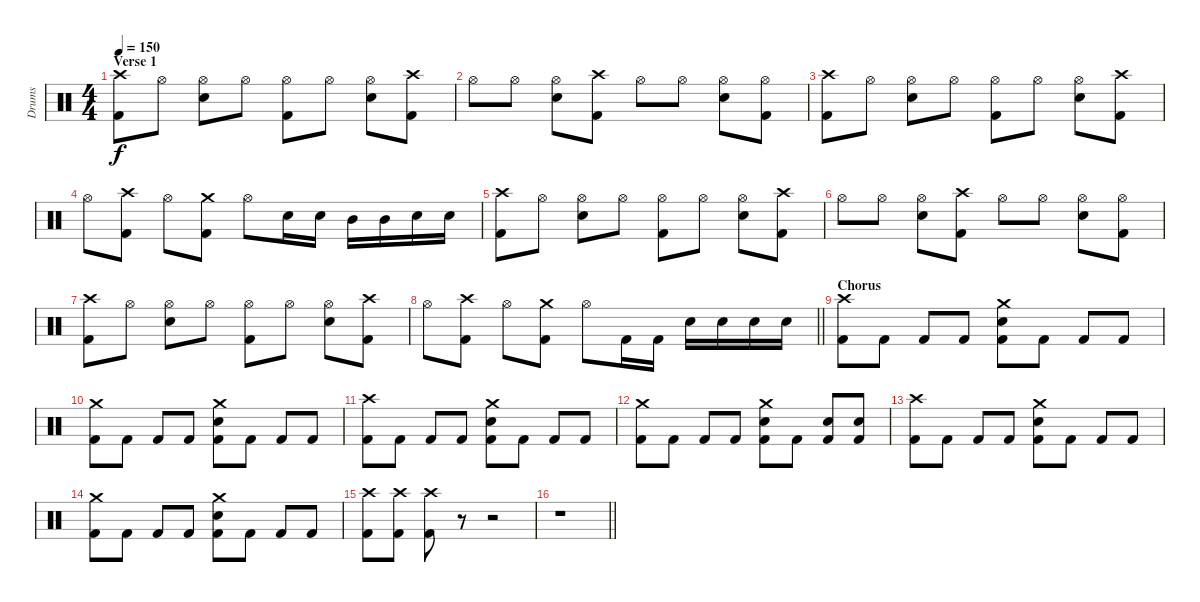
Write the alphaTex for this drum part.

\track ("Drums" "Drums") {instrument percussion}
\staff {score}
\articulation defaults
\ts (4 4)
\section ("" "Verse 1")
\tempo 150
\clef neutral
\ks c
("Crash high (hit)" "Kick (hit) 2").8{dy f} "Hi-Hat (open)".8 ("Hi-Hat (open)" "Electric Snare (hit)").8 "Hi-Hat (open)".8 ("Hi-Hat (open)" "Kick (hit) 2").8 "Hi-Hat (open)".8 ("Hi-Hat (open)" "Electric Snare (hit)").8 ("Crash high (hit)" "Kick (hit) 2").8 |
"Hi-Hat (open)".8 "Hi-Hat (open)".8 ("Hi-Hat (open)" "Electric Snare (hit)").8 ("Crash high (hit)" "Kick (hit) 2").8 "Hi-Hat (open)".8 "Hi-Hat (open)".8 ("Hi-Hat (open)" "Electric Snare (hit)").8 ("Hi-Hat (open)" "Kick (hit) 2").8 |
("Crash high (hit)" "Kick (hit) 2").8 "Hi-Hat (open)".8 ("Hi-Hat (open)" "Electric Snare (hit)").8 "Hi-Hat (open)".8 ("Hi-Hat (open)" "Kick (hit) 2").8 "Hi-Hat (open)".8 ("Hi-Hat (open)" "Electric Snare (hit)").8 ("Crash high (hit)" "Kick (hit) 2").8 |
"Hi-Hat (open)".8 ("Crash high (hit)" "Kick (hit) 2").8 "Hi-Hat (open)".8 ("Crash medium (hit)" "Kick (hit) 2").8 "Hi-Hat (open)".8 "Electric Snare (hit)".16 "Electric Snare (hit)".16 "Mid Tom (hit)".16 "Mid Tom (hit)".16 "Electric Snare (hit)".16 "Electric Snare (hit)".16 |
("Crash high (hit)" "Kick (hit) 2").8 "Hi-Hat (open)".8 ("Hi-Hat (open)" "Electric Snare (hit)").8 "Hi-Hat (open)".8 ("Hi-Hat (open)" "Kick (hit) 2").8 "Hi-Hat (open)".8 ("Hi-Hat (open)" "Electric Snare (hit)").8 ("Crash high (hit)" "Kick (hit) 2").8 |
"Hi-Hat (open)".8 "Hi-Hat (open)".8 ("Hi-Hat (open)" "Electric Snare (hit)").8 ("Crash high (hit)" "Kick (hit) 2").8 "Hi-Hat (open)".8 "Hi-Hat (open)".8 ("Hi-Hat (open)" "Electric Snare (hit)").8 ("Hi-Hat (open)" "Kick (hit) 2").8 |
("Crash high (hit)" "Kick (hit) 2").8 "Hi-Hat (open)".8 ("Hi-Hat (open)" "Electric Snare (hit)").8 "Hi-Hat (open)".8 ("Hi-Hat (open)" "Kick (hit) 2").8 "Hi-Hat (open)".8 ("Hi-Hat (open)" "Electric Snare (hit)").8 ("Crash high (hit)" "Kick (hit) 2").8 |
\barLineRight lightlight "Hi-Hat (open)".8
("Crash high (hit)" "Kick (hit) 2").8 "Hi-Hat (open)".8 ("Crash medium (hit)" "Kick (hit) 2").8 "Hi-Hat (open)".8 "Kick (hit) 2".16 "Kick (hit) 2".16 "Electric Snare (hit)".16 "Electric Snare (hit)".16 "Electric Snare (hit)".16 "Electric Snare (hit)".16 |
\section ("" "Chorus")
("Crash high (hit)" "Kick (hit) 2").8 "Kick (hit) 2".8 "Kick (hit) 2".8 "Kick (hit) 2".8 ("Crash medium (hit)" "Electric Snare (hit)" "Kick (hit) 2").8 "Kick (hit) 2".8 "Kick (hit) 2".8 "Kick (hit) 2".8 |
("Crash medium (hit)" "Kick (hit) 2").8 "Kick (hit) 2".8 "Kick (hit) 2".8 "Kick (hit) 2".8 ("Crash medium (hit)" "Electric Snare (hit)" "Kick (hit) 2").8 "Kick (hit) 2".8 "Kick (hit) 2".8 "Kick (hit) 2".8 |
("Crash high (hit)" "Kick (hit) 2").8 "Kick (hit) 2".8 "Kick (hit) 2".8 "Kick (hit) 2".8 ("Crash medium (hit)" "Electric Snare (hit)" "Kick (hit) 2").8 "Kick (hit) 2".8 "Kick (hit) 2".8 "Kick (hit) 2".8 |
("Crash medium (hit)" "Kick (hit) 2").8 "Kick (hit) 2".8 "Kick (hit) 2".8 "Kick (hit) 2".8 ("Crash medium (hit)" "Electric Snare (hit)" "Kick (hit) 2").8 "Kick (hit) 2".8 ("Electric Snare (hit)" "Kick (hit) 2").8 ("Electric Snare (hit)" "Kick (hit) 2").8 |
("Crash high (hit)" "Kick (hit) 2").8 "Kick (hit) 2".8 "Kick (hit) 2".8 "Kick (hit) 2".8 ("Crash medium (hit)" "Electric Snare (hit)" "Kick (hit) 2").8 "Kick (hit) 2".8 "Kick (hit) 2".8 "Kick (hit) 2".8 |
("Crash medium (hit)" "Kick (hit) 2").8 "Kick (hit) 2".8 "Kick (hit) 2".8 "Kick (hit) 2".8 ("Crash medium (hit)" "Electric Snare (hit)" "Kick (hit) 2").8 "Kick (hit) 2".8 "Kick (hit) 2".8 "Kick (hit) 2".8 |
("Crash high (hit)" "Kick (hit) 2").8 ("Crash high (hit)" "Kick (hit) 2").8 ("Crash high (hit)" "Kick (hit) 2").8 r.8{volume 0} r.2 |
\barLineRight lightlight
r.1
